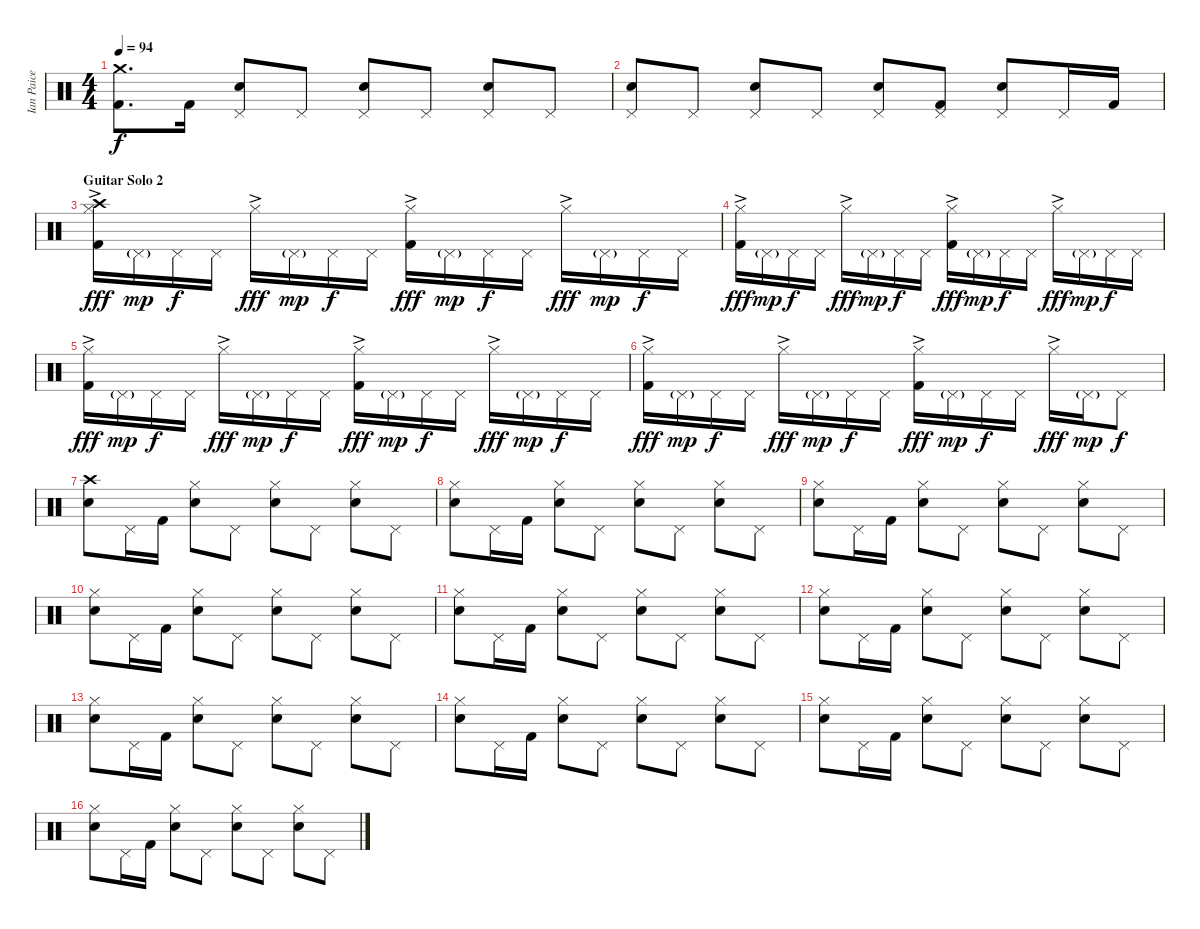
\track ("Ian Paice (Drums)" "Ian Paice ") {instrument percussion}
\staff {score}
\articulation defaults
\ts (4 4)
\tempo 94
\clef neutral
\ks c
("Crash medium (hit)" "Kick (hit) 2").8{d dy f} "Kick (hit) 2".16 ("Pedal Hi-Hat (hit)" "Electric Snare (hit)").8 "Pedal Hi-Hat (hit)".8 ("Pedal Hi-Hat (hit)" "Electric Snare (hit)").8 "Pedal Hi-Hat (hit)".8 ("Pedal Hi-Hat (hit)" "Electric Snare (hit)").8 "Pedal Hi-Hat (hit)".8 |
("Pedal Hi-Hat (hit)" "Electric Snare (hit)").8 "Pedal Hi-Hat (hit)".8 ("Pedal Hi-Hat (hit)" "Electric Snare (hit)").8 "Pedal Hi-Hat (hit)".8 ("Pedal Hi-Hat (hit)" "Electric Snare (hit)").8 ("Pedal Hi-Hat (hit)" "Kick (hit) 2").8 ("Pedal Hi-Hat (hit)" "Electric Snare (hit)").8 "Pedal Hi-Hat (hit)".16 "Kick (hit) 2".16 |
\section ("" "Guitar Solo 2")
("Crash high (hit)" "Hi-Hat (closed)"{ac} "Kick (hit) 2").16{dy fff} "Pedal Hi-Hat (hit)"{g}.16{dy mp} "Pedal Hi-Hat (hit)".16{dy f} "Pedal Hi-Hat (hit)".16 "Hi-Hat (closed)"{ac}.16{dy fff} "Pedal Hi-Hat (hit)"{g}.16{dy mp} "Pedal Hi-Hat (hit)".16{dy f} "Pedal Hi-Hat (hit)".16 ("Hi-Hat (closed)"{ac} "Kick (hit) 2").16{dy fff} "Pedal Hi-Hat (hit)"{g}.16{dy mp} "Pedal Hi-Hat (hit)".16{dy f} "Pedal Hi-Hat (hit)".16 "Hi-Hat (closed)"{ac}.16{dy fff} "Pedal Hi-Hat (hit)"{g}.16{dy mp} "Pedal Hi-Hat (hit)".16{dy f} "Pedal Hi-Hat (hit)".16 |
("Hi-Hat (closed)"{ac} "Kick (hit) 2").16{dy fff} "Pedal Hi-Hat (hit)"{g}.16{dy mp} "Pedal Hi-Hat (hit)".16{dy f} "Pedal Hi-Hat (hit)".16 "Hi-Hat (closed)"{ac}.16{dy fff} "Pedal Hi-Hat (hit)"{g}.16{dy mp} "Pedal Hi-Hat (hit)".16{dy f} "Pedal Hi-Hat (hit)".16 ("Hi-Hat (closed)"{ac} "Kick (hit) 2").16{dy fff} "Pedal Hi-Hat (hit)"{g}.16{dy mp} "Pedal Hi-Hat (hit)".16{dy f} "Pedal Hi-Hat (hit)".16 "Hi-Hat (closed)"{ac}.16{dy fff} "Pedal Hi-Hat (hit)"{g}.16{dy mp} "Pedal Hi-Hat (hit)".16{dy f} "Pedal Hi-Hat (hit)".16 |
("Hi-Hat (closed)"{ac} "Kick (hit) 2").16{dy fff} "Pedal Hi-Hat (hit)"{g}.16{dy mp} "Pedal Hi-Hat (hit)".16{dy f} "Pedal Hi-Hat (hit)".16 "Hi-Hat (closed)"{ac}.16{dy fff} "Pedal Hi-Hat (hit)"{g}.16{dy mp} "Pedal Hi-Hat (hit)".16{dy f} "Pedal Hi-Hat (hit)".16 ("Hi-Hat (closed)"{ac} "Kick (hit) 2").16{dy fff} "Pedal Hi-Hat (hit)"{g}.16{dy mp} "Pedal Hi-Hat (hit)".16{dy f} "Pedal Hi-Hat (hit)".16 "Hi-Hat (closed)"{ac}.16{dy fff} "Pedal Hi-Hat (hit)"{g}.16{dy mp} "Pedal Hi-Hat (hit)".16{dy f} "Pedal Hi-Hat (hit)".16 |
("Hi-Hat (closed)"{ac} "Kick (hit) 2").16{dy fff} "Pedal Hi-Hat (hit)"{g}.16{dy mp} "Pedal Hi-Hat (hit)".16{dy f} "Pedal Hi-Hat (hit)".16 "Hi-Hat (closed)"{ac}.16{dy fff} "Pedal Hi-Hat (hit)"{g}.16{dy mp} "Pedal Hi-Hat (hit)".16{dy f} "Pedal Hi-Hat (hit)".16 ("Hi-Hat (closed)"{ac} "Kick (hit) 2").16{dy fff} "Pedal Hi-Hat (hit)"{g}.16{dy mp} "Pedal Hi-Hat (hit)".16{dy f} "Pedal Hi-Hat (hit)".16 "Hi-Hat (closed)"{ac}.16{dy fff} "Pedal Hi-Hat (hit)"{g}.16{dy mp} "Pedal Hi-Hat (hit)".8{dy f} |
("Crash high (hit)" "Electric Snare (hit)").8 "Pedal Hi-Hat (hit)".16 "Kick (hit) 2".16 ("Hi-Hat (closed)" "Electric Snare (hit)").8 "Pedal Hi-Hat (hit)".8 ("Hi-Hat (closed)" "Electric Snare (hit)").8 "Pedal Hi-Hat (hit)".8 ("Hi-Hat (closed)" "Electric Snare (hit)").8 "Pedal Hi-Hat (hit)".8 |
("Hi-Hat (closed)" "Electric Snare (hit)").8 "Pedal Hi-Hat (hit)".16 "Kick (hit) 2".16 ("Hi-Hat (closed)" "Electric Snare (hit)").8 "Pedal Hi-Hat (hit)".8 ("Hi-Hat (closed)" "Electric Snare (hit)").8 "Pedal Hi-Hat (hit)".8 ("Hi-Hat (closed)" "Electric Snare (hit)").8 "Pedal Hi-Hat (hit)".8 |
("Hi-Hat (closed)" "Electric Snare (hit)").8 "Pedal Hi-Hat (hit)".16 "Kick (hit) 2".16 ("Hi-Hat (closed)" "Electric Snare (hit)").8 "Pedal Hi-Hat (hit)".8 ("Hi-Hat (closed)" "Electric Snare (hit)").8 "Pedal Hi-Hat (hit)".8 ("Hi-Hat (closed)" "Electric Snare (hit)").8 "Pedal Hi-Hat (hit)".8 |
("Hi-Hat (closed)" "Electric Snare (hit)").8 "Pedal Hi-Hat (hit)".16 "Kick (hit) 2".16 ("Hi-Hat (closed)" "Electric Snare (hit)").8 "Pedal Hi-Hat (hit)".8 ("Hi-Hat (closed)" "Electric Snare (hit)").8 "Pedal Hi-Hat (hit)".8 ("Hi-Hat (closed)" "Electric Snare (hit)").8 "Pedal Hi-Hat (hit)".8 |
("Hi-Hat (closed)" "Electric Snare (hit)").8 "Pedal Hi-Hat (hit)".16 "Kick (hit) 2".16 ("Hi-Hat (closed)" "Electric Snare (hit)").8 "Pedal Hi-Hat (hit)".8 ("Hi-Hat (closed)" "Electric Snare (hit)").8 "Pedal Hi-Hat (hit)".8 ("Hi-Hat (closed)" "Electric Snare (hit)").8 "Pedal Hi-Hat (hit)".8 |
("Hi-Hat (closed)" "Electric Snare (hit)").8 "Pedal Hi-Hat (hit)".16 "Kick (hit) 2".16 ("Hi-Hat (closed)" "Electric Snare (hit)").8 "Pedal Hi-Hat (hit)".8 ("Hi-Hat (closed)" "Electric Snare (hit)").8 "Pedal Hi-Hat (hit)".8 ("Hi-Hat (closed)" "Electric Snare (hit)").8 "Pedal Hi-Hat (hit)".8 |
("Hi-Hat (closed)" "Electric Snare (hit)").8 "Pedal Hi-Hat (hit)".16 "Kick (hit) 2".16 ("Hi-Hat (closed)" "Electric Snare (hit)").8 "Pedal Hi-Hat (hit)".8 ("Hi-Hat (closed)" "Electric Snare (hit)").8 "Pedal Hi-Hat (hit)".8 ("Hi-Hat (closed)" "Electric Snare (hit)").8 "Pedal Hi-Hat (hit)".8 |
("Hi-Hat (closed)" "Electric Snare (hit)").8 "Pedal Hi-Hat (hit)".16 "Kick (hit) 2".16 ("Hi-Hat (closed)" "Electric Snare (hit)").8 "Pedal Hi-Hat (hit)".8 ("Hi-Hat (closed)" "Electric Snare (hit)").8 "Pedal Hi-Hat (hit)".8 ("Hi-Hat (closed)" "Electric Snare (hit)").8 "Pedal Hi-Hat (hit)".8 |
("Hi-Hat (closed)" "Electric Snare (hit)").8 "Pedal Hi-Hat (hit)".16 "Kick (hit) 2".16 ("Hi-Hat (closed)" "Electric Snare (hit)").8 "Pedal Hi-Hat (hit)".8 ("Hi-Hat (closed)" "Electric Snare (hit)").8 "Pedal Hi-Hat (hit)".8 ("Hi-Hat (closed)" "Electric Snare (hit)").8 "Pedal Hi-Hat (hit)".8 |
("Hi-Hat (closed)" "Electric Snare (hit)").8 "Pedal Hi-Hat (hit)".16 "Kick (hit) 2".16 ("Hi-Hat (closed)" "Electric Snare (hit)").8 "Pedal Hi-Hat (hit)".8 ("Hi-Hat (closed)" "Electric Snare (hit)").8 "Pedal Hi-Hat (hit)".8 ("Hi-Hat (closed)" "Electric Snare (hit)").8 "Pedal Hi-Hat (hit)".8
